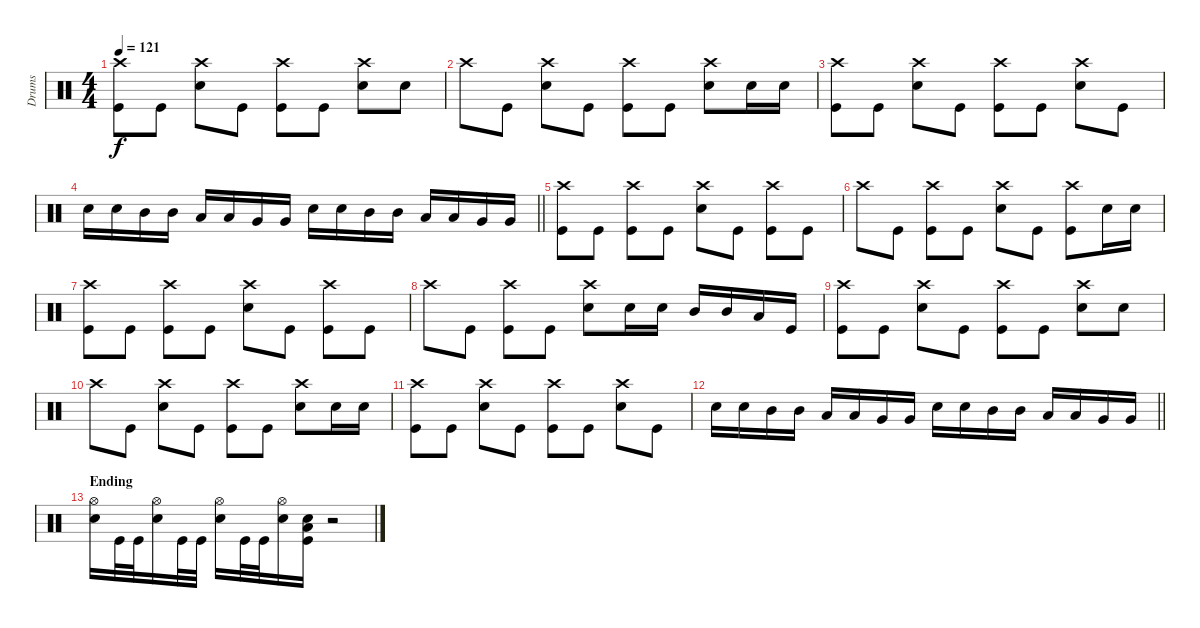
\track ("Drums" "Drums") {instrument percussion}
\staff {score}
\articulation defaults
\ts (4 4)
\tempo 121
\clef neutral
\ks c
("Crash high (hit)" "Kick (hit)").8{dy f} "Kick (hit)".8 ("Crash high (hit)" "Electric Snare (hit)").8 "Kick (hit)".8 ("Crash high (hit)" "Kick (hit)").8 "Kick (hit)".8 ("Crash high (hit)" "Electric Snare (hit)").8 "Electric Snare (hit)".8 |
"Crash high (hit)".8 "Kick (hit)".8 ("Crash high (hit)" "Electric Snare (hit)").8 "Kick (hit)".8 ("Crash high (hit)" "Kick (hit)").8 "Kick (hit)".8 ("Crash high (hit)" "Electric Snare (hit)").8 "Electric Snare (hit)".16 "Electric Snare (hit)".16 |
("Crash high (hit)" "Kick (hit)").8 "Kick (hit)".8 ("Crash high (hit)" "Electric Snare (hit)").8 "Kick (hit)".8 ("Crash high (hit)" "Kick (hit)").8 "Kick (hit)".8 ("Crash high (hit)" "Electric Snare (hit)").8 "Kick (hit)".8 |
\barLineRight lightlight "Electric Snare (hit)".16 "Electric Snare (hit)".16 "Mid Tom (hit)".16 "Mid Tom (hit)".16 "Low Tom (hit)".16 "Low Tom (hit)".16 "Very Low Tom (hit)".16 "Very Low Tom (hit)".16 "Electric Snare (hit)".16 "Electric Snare (hit)".16 "Mid Tom (hit)".16 "Mid Tom (hit)".16 "Low Tom (hit)".16 "Low Tom (hit)".16 "Very Low Tom (hit)".16 "Very Low Tom (hit)".16
|
("Crash high (hit)" "Kick (hit)").8 "Kick (hit)".8 ("Crash high (hit)" "Kick (hit)").8 "Kick (hit)".8 ("Crash high (hit)" "Electric Snare (hit)").8 "Kick (hit)".8 ("Crash high (hit)" "Kick (hit)").8 "Kick (hit)".8 |
"Crash high (hit)".8 "Kick (hit)".8 ("Crash high (hit)" "Kick (hit)").8 "Kick (hit)".8 ("Crash high (hit)" "Electric Snare (hit)").8 "Kick (hit)".8 ("Crash high (hit)" "Kick (hit)").8 "Electric Snare (hit)".16 "Electric Snare (hit)".16 |
("Crash high (hit)" "Kick (hit)").8 "Kick (hit)".8 ("Crash high (hit)" "Kick (hit)").8 "Kick (hit)".8 ("Crash high (hit)" "Electric Snare (hit)").8 "Kick (hit)".8 ("Crash high (hit)" "Kick (hit)").8 "Kick (hit)".8 |
"Crash high (hit)".8 "Kick (hit)".8 ("Crash high (hit)" "Kick (hit)").8 "Kick (hit)".8 ("Crash high (hit)" "Electric Snare (hit)").8 "Electric Snare (hit)".16 "Electric Snare (hit)".16 "Mid Tom (hit)".16 "Mid Tom (hit)".16 "Low Tom (hit)".16 "Kick (hit)".16 |
("Crash high (hit)" "Kick (hit)").8 "Kick (hit)".8 ("Crash high (hit)" "Electric Snare (hit)").8 "Kick (hit)".8 ("Crash high (hit)" "Kick (hit)").8 "Kick (hit)".8 ("Crash high (hit)" "Electric Snare (hit)").8 "Electric Snare (hit)".8 |
"Crash high (hit)".8 "Kick (hit)".8 ("Crash high (hit)" "Electric Snare (hit)").8 "Kick (hit)".8 ("Crash high (hit)" "Kick (hit)").8 "Kick (hit)".8 ("Crash high (hit)" "Electric Snare (hit)").8 "Electric Snare (hit)".16 "Electric Snare (hit)".16 |
("Crash high (hit)" "Kick (hit)").8 "Kick (hit)".8 ("Crash high (hit)" "Electric Snare (hit)").8 "Kick (hit)".8 ("Crash high (hit)" "Kick (hit)").8 "Kick (hit)".8 ("Crash high (hit)" "Electric Snare (hit)").8 "Kick (hit)".8 |
\barLineRight lightlight "Electric Snare (hit)".16 "Electric Snare (hit)".16 "Mid Tom (hit)".16 "Mid Tom (hit)".16 "Low Tom (hit)".16 "Low Tom (hit)".16 "Very Low Tom (hit)".16 "Very Low Tom (hit)".16 "Electric Snare (hit)".16 "Electric Snare (hit)".16 "Mid Tom (hit)".16 "Mid Tom (hit)".16 "Low Tom (hit)".16 "Low Tom (hit)".16 "Very Low Tom (hit)".16 "Very Low Tom (hit)".16
|
\section ("" "Ending")
("Hi-Hat (open)" "Electric Snare (hit)").16 "Kick (hit)".32 "Kick (hit)".32 ("Hi-Hat (open)" "Electric Snare (hit)").16 "Kick (hit)".32 "Kick (hit)".32 ("Hi-Hat (open)" "Electric Snare (hit)").16 "Kick (hit)".32 "Kick (hit)".32 ("Hi-Hat (open)" "Electric Snare (hit)").16 ("Low Tom (hit)" "Electric Snare (hit)" "Kick (hit)").16 r.2
